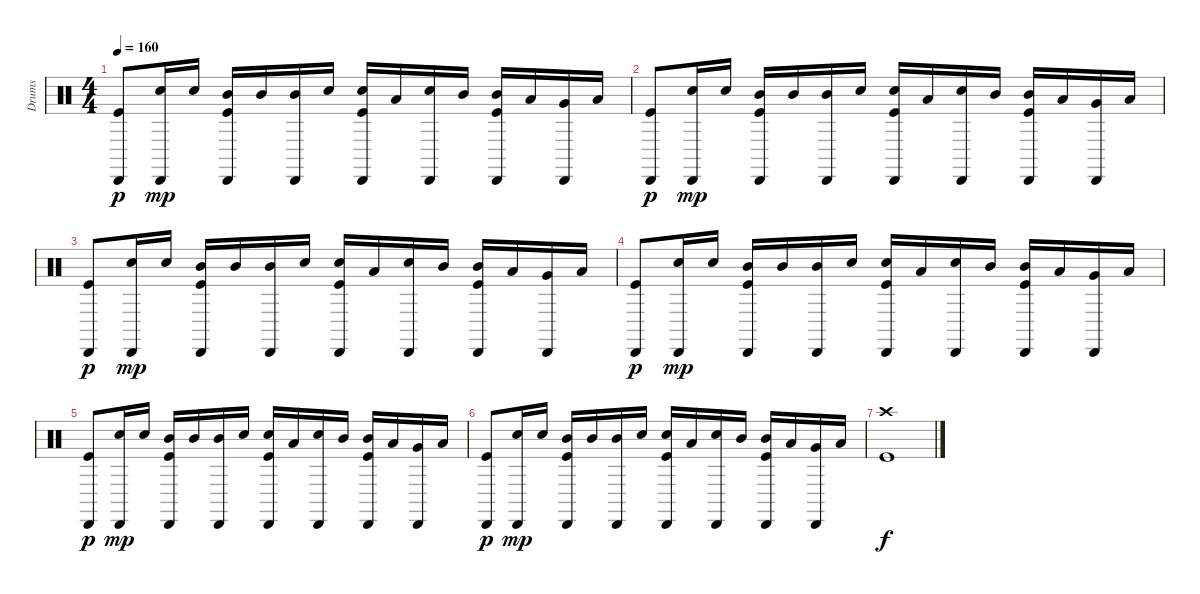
\track ("Drums" "Drums") {instrument percussion}
\staff {score}
\articulation defaults
\ts (4 4)
\tempo 160
\clef neutral
\ks c
("Cabasa (hit)" "Kick (hit)").8{dy p} ("Cabasa (hit)" "Electric Snare (hit)").16{dy mp} "Electric Snare (hit)".16 ("Cabasa (hit)" "Mid Tom (hit)" "Kick (hit)").16 "Mid Tom (hit)".16 ("Cabasa (hit)" "Mid Tom (hit)").16 "Electric Snare (hit)".16 ("Cabasa (hit)" "Electric Snare (hit)" "Kick (hit)").16 "Low Tom (hit)".16 ("Cabasa (hit)" "Electric Snare (hit)").16 "Mid Tom (hit)".16 ("Cabasa (hit)" "Mid Tom (hit)" "Kick (hit)").16 "Low Tom (hit)".16 ("Cabasa (hit)" "Very Low Tom (hit)").16 "Low Tom (hit)".16 |
("Cabasa (hit)" "Kick (hit)").8{dy p} ("Cabasa (hit)" "Electric Snare (hit)").16{dy mp} "Electric Snare (hit)".16 ("Cabasa (hit)" "Mid Tom (hit)" "Kick (hit)").16 "Mid Tom (hit)".16 ("Cabasa (hit)" "Mid Tom (hit)").16 "Electric Snare (hit)".16 ("Cabasa (hit)" "Electric Snare (hit)" "Kick (hit)").16 "Low Tom (hit)".16 ("Cabasa (hit)" "Electric Snare (hit)").16 "Mid Tom (hit)".16 ("Cabasa (hit)" "Mid Tom (hit)" "Kick (hit)").16 "Low Tom (hit)".16 ("Cabasa (hit)" "Very Low Tom (hit)").16 "Low Tom (hit)".16 |
("Cabasa (hit)" "Kick (hit)").8{dy p} ("Cabasa (hit)" "Electric Snare (hit)").16{dy mp} "Electric Snare (hit)".16 ("Cabasa (hit)" "Mid Tom (hit)" "Kick (hit)").16 "Mid Tom (hit)".16 ("Cabasa (hit)" "Mid Tom (hit)").16 "Electric Snare (hit)".16 ("Cabasa (hit)" "Electric Snare (hit)" "Kick (hit)").16 "Low Tom (hit)".16 ("Cabasa (hit)" "Electric Snare (hit)").16 "Mid Tom (hit)".16 ("Cabasa (hit)" "Mid Tom (hit)" "Kick (hit)").16 "Low Tom (hit)".16 ("Cabasa (hit)" "Very Low Tom (hit)").16 "Low Tom (hit)".16 |
("Cabasa (hit)" "Kick (hit)").8{dy p} ("Cabasa (hit)" "Electric Snare (hit)").16{dy mp} "Electric Snare (hit)".16 ("Cabasa (hit)" "Mid Tom (hit)" "Kick (hit)").16 "Mid Tom (hit)".16 ("Cabasa (hit)" "Mid Tom (hit)").16 "Electric Snare (hit)".16 ("Cabasa (hit)" "Electric Snare (hit)" "Kick (hit)").16 "Low Tom (hit)".16 ("Cabasa (hit)" "Electric Snare (hit)").16 "Mid Tom (hit)".16 ("Cabasa (hit)" "Mid Tom (hit)" "Kick (hit)").16 "Low Tom (hit)".16 ("Cabasa (hit)" "Very Low Tom (hit)").16 "Low Tom (hit)".16 |
("Cabasa (hit)" "Kick (hit)").8{dy p} ("Cabasa (hit)" "Electric Snare (hit)").16{dy mp} "Electric Snare (hit)".16 ("Cabasa (hit)" "Mid Tom (hit)" "Kick (hit)").16 "Mid Tom (hit)".16 ("Cabasa (hit)" "Mid Tom (hit)").16 "Electric Snare (hit)".16 ("Cabasa (hit)" "Electric Snare (hit)" "Kick (hit)").16 "Low Tom (hit)".16 ("Cabasa (hit)" "Electric Snare (hit)").16 "Mid Tom (hit)".16 ("Cabasa (hit)" "Mid Tom (hit)" "Kick (hit)").16 "Low Tom (hit)".16 ("Cabasa (hit)" "Very Low Tom (hit)").16 "Low Tom (hit)".16 |
("Cabasa (hit)" "Kick (hit)").8{dy p} ("Cabasa (hit)" "Electric Snare (hit)").16{dy mp} "Electric Snare (hit)".16 ("Cabasa (hit)" "Mid Tom (hit)" "Kick (hit)").16 "Mid Tom (hit)".16 ("Cabasa (hit)" "Mid Tom (hit)").16 "Electric Snare (hit)".16 ("Cabasa (hit)" "Electric Snare (hit)" "Kick (hit)").16 "Low Tom (hit)".16 ("Cabasa (hit)" "Electric Snare (hit)").16 "Mid Tom (hit)".16 ("Cabasa (hit)" "Mid Tom (hit)" "Kick (hit)").16 "Low Tom (hit)".16 ("Cabasa (hit)" "Very Low Tom (hit)").16 "Low Tom (hit)".16 |
("Crash high (hit)" "Kick (hit)").1{dy f}
